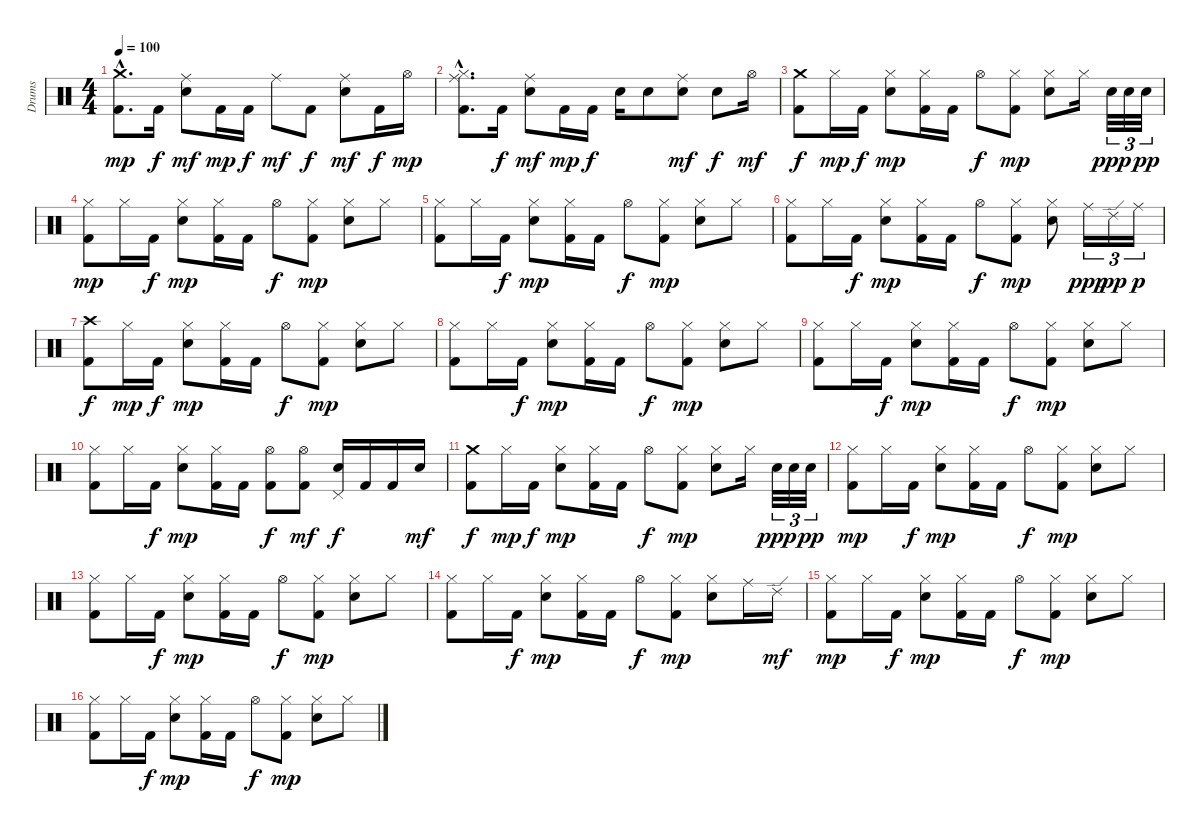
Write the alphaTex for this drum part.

\track ("Drums" "Drums") {instrument percussion}
\staff {score}
\articulation defaults
\ts (4 4)
\tempo 100
\clef neutral
\ks c
("Crash medium (hit)"{hac} "Kick (hit) 2"{hac}).8{d dy mp} "Kick (hit) 2".16{dy f} ("Ride (middle)" "Electric Snare (hit)").8{dy mf} "Kick (hit) 2".16{dy mp} "Kick (hit) 2".16{dy f} "Ride (middle)".8{dy mf} "Kick (hit) 2".8{dy f} ("Ride (middle)" "Electric Snare (hit)").8{dy mf} "Kick (hit) 2".16{dy f} "Hi-Hat (open)".16{dy mp} |
("Hi-Hat (closed)"{hac} "Ride (middle)"{hac} "Kick (hit) 2"{hac}).8{d} "Kick (hit) 2".16{dy f} ("Ride (middle)" "Electric Snare (hit)").8{dy mf} "Kick (hit) 2".16{dy mp} "Kick (hit) 2".16{dy f} "Electric Snare (hit)".16 "Electric Snare (hit)".8 ("Ride (middle)" "Electric Snare (hit)").8{dy mf} "Electric Snare (hit)".8{dy f} "Hi-Hat (open)".16{dy mf} |
("Crash medium (hit)" "Kick (hit) 2").8{dy f} "Hi-Hat (closed)".16{dy mp} "Kick (hit) 2".16{dy f} ("Hi-Hat (closed)" "Electric Snare (hit)").8{dy mp} ("Hi-Hat (closed)" "Kick (hit) 2").16 "Kick (hit) 2".16 "Hi-Hat (open)".8{dy f} ("Hi-Hat (closed)" "Kick (hit) 2").8{dy mp} ("Hi-Hat (closed)" "Electric Snare (hit)").8 "Hi-Hat (closed)".16 "Electric Snare (hit)".32{tu (3 2) dy ppp} "Electric Snare (hit)".32{tu (3 2)} "Electric Snare (hit)".32{tu (3 2) dy pp} |
("Hi-Hat (closed)" "Kick (hit) 2").8{dy mp} "Hi-Hat (closed)".16 "Kick (hit) 2".16{dy f} ("Hi-Hat (closed)" "Electric Snare (hit)").8{dy mp} ("Hi-Hat (closed)" "Kick (hit) 2").16 "Kick (hit) 2".16 "Hi-Hat (open)".8{dy f} ("Hi-Hat (closed)" "Kick (hit) 2").8{dy mp} ("Hi-Hat (closed)" "Electric Snare (hit)").8 "Hi-Hat (closed)".8 |
("Hi-Hat (closed)" "Kick (hit) 2").8 "Hi-Hat (closed)".16 "Kick (hit) 2".16{dy f} ("Hi-Hat (closed)" "Electric Snare (hit)").8{dy mp} ("Hi-Hat (closed)" "Kick (hit) 2").16 "Kick (hit) 2".16 "Hi-Hat (open)".8{dy f} ("Hi-Hat (closed)" "Kick (hit) 2").8{dy mp} ("Hi-Hat (closed)" "Electric Snare (hit)").8 "Hi-Hat (closed)".8 |
("Hi-Hat (closed)" "Kick (hit) 2").8 "Hi-Hat (closed)".16 "Kick (hit) 2".16{dy f} ("Hi-Hat (closed)" "Electric Snare (hit)").8{dy mp} ("Hi-Hat (closed)" "Kick (hit) 2").16 "Kick (hit) 2".16 "Hi-Hat (open)".8{dy f} ("Hi-Hat (closed)" "Kick (hit) 2").8{dy mp} ("Hi-Hat (closed)" "Electric Snare (hit)").8 "Ride (middle)".16{tu (3 2) dy ppp} "Ride (edge) 2".16{tu (3 2) dy pp} "Ride (middle)".16{tu (3 2) dy p} |
("Crash high (hit)" "Kick (hit) 2").8{dy f} "Hi-Hat (closed)".16{dy mp} "Kick (hit) 2".16{dy f} ("Hi-Hat (closed)" "Electric Snare (hit)").8{dy mp} ("Hi-Hat (closed)" "Kick (hit) 2").16 "Kick (hit) 2".16 "Hi-Hat (open)".8{dy f} ("Hi-Hat (closed)" "Kick (hit) 2").8{dy mp} ("Hi-Hat (closed)" "Electric Snare (hit)").8 "Hi-Hat (closed)".8 |
("Hi-Hat (closed)" "Kick (hit) 2").8 "Hi-Hat (closed)".16 "Kick (hit) 2".16{dy f} ("Hi-Hat (closed)" "Electric Snare (hit)").8{dy mp} ("Hi-Hat (closed)" "Kick (hit) 2").16 "Kick (hit) 2".16 "Hi-Hat (open)".8{dy f} ("Hi-Hat (closed)" "Kick (hit) 2").8{dy mp} ("Hi-Hat (closed)" "Electric Snare (hit)").8 "Hi-Hat (closed)".8 |
("Hi-Hat (closed)" "Kick (hit) 2").8 "Hi-Hat (closed)".16 "Kick (hit) 2".16{dy f} ("Hi-Hat (closed)" "Electric Snare (hit)").8{dy mp} ("Hi-Hat (closed)" "Kick (hit) 2").16 "Kick (hit) 2".16 "Hi-Hat (open)".8{dy f} ("Hi-Hat (closed)" "Kick (hit) 2").8{dy mp} ("Hi-Hat (closed)" "Electric Snare (hit)").8 "Hi-Hat (closed)".8 |
("Hi-Hat (closed)" "Kick (hit) 2").8 "Hi-Hat (closed)".16 "Kick (hit) 2".16{dy f} ("Hi-Hat (closed)" "Electric Snare (hit)").8{dy mp} ("Hi-Hat (closed)" "Kick (hit) 2").16 "Kick (hit) 2".16 ("Hi-Hat (open)" "Kick (hit) 2").8{dy f} ("Hi-Hat (open)" "Kick (hit) 2").8{dy mf} ("Pedal Hi-Hat (hit)" "Electric Snare (hit)").16{dy f} "Kick (hit) 2".16 "Kick (hit) 2".16 "Electric Snare (hit)".16{dy mf} |
("Crash medium (hit)" "Kick (hit) 2").8{dy f} "Hi-Hat (closed)".16{dy mp} "Kick (hit) 2".16{dy f} ("Hi-Hat (closed)" "Electric Snare (hit)").8{dy mp} ("Hi-Hat (closed)" "Kick (hit) 2").16 "Kick (hit) 2".16 "Hi-Hat (open)".8{dy f} ("Hi-Hat (closed)" "Kick (hit) 2").8{dy mp} ("Hi-Hat (closed)" "Electric Snare (hit)").8 "Hi-Hat (closed)".16 "Electric Snare (hit)".32{tu (3 2) dy ppp} "Electric Snare (hit)".32{tu (3 2)} "Electric Snare (hit)".32{tu (3 2) dy pp} |
("Hi-Hat (closed)" "Kick (hit) 2").8{dy mp} "Hi-Hat (closed)".16 "Kick (hit) 2".16{dy f} ("Hi-Hat (closed)" "Electric Snare (hit)").8{dy mp} ("Hi-Hat (closed)" "Kick (hit) 2").16 "Kick (hit) 2".16 "Hi-Hat (open)".8{dy f} ("Hi-Hat (closed)" "Kick (hit) 2").8{dy mp} ("Hi-Hat (closed)" "Electric Snare (hit)").8 "Hi-Hat (closed)".8 |
("Hi-Hat (closed)" "Kick (hit) 2").8 "Hi-Hat (closed)".16 "Kick (hit) 2".16{dy f} ("Hi-Hat (closed)" "Electric Snare (hit)").8{dy mp} ("Hi-Hat (closed)" "Kick (hit) 2").16 "Kick (hit) 2".16 "Hi-Hat (open)".8{dy f} ("Hi-Hat (closed)" "Kick (hit) 2").8{dy mp} ("Hi-Hat (closed)" "Electric Snare (hit)").8 "Hi-Hat (closed)".8 |
("Hi-Hat (closed)" "Kick (hit) 2").8 "Hi-Hat (closed)".16 "Kick (hit) 2".16{dy f} ("Hi-Hat (closed)" "Electric Snare (hit)").8{dy mp} ("Hi-Hat (closed)" "Kick (hit) 2").16 "Kick (hit) 2".16 "Hi-Hat (open)".8{dy f} ("Hi-Hat (closed)" "Kick (hit) 2").8{dy mp} ("Hi-Hat (closed)" "Electric Snare (hit)").8 "Ride (middle)".16 "Ride (edge) 2".16{dy mf} |
("Hi-Hat (closed)" "Kick (hit) 2").8{dy mp} "Hi-Hat (closed)".16 "Kick (hit) 2".16{dy f} ("Hi-Hat (closed)" "Electric Snare (hit)").8{dy mp} ("Hi-Hat (closed)" "Kick (hit) 2").16 "Kick (hit) 2".16 "Hi-Hat (open)".8{dy f} ("Hi-Hat (closed)" "Kick (hit) 2").8{dy mp} ("Hi-Hat (closed)" "Electric Snare (hit)").8 "Hi-Hat (closed)".8 |
("Hi-Hat (closed)" "Kick (hit) 2").8 "Hi-Hat (closed)".16 "Kick (hit) 2".16{dy f} ("Hi-Hat (closed)" "Electric Snare (hit)").8{dy mp} ("Hi-Hat (closed)" "Kick (hit) 2").16 "Kick (hit) 2".16 "Hi-Hat (open)".8{dy f} ("Hi-Hat (closed)" "Kick (hit) 2").8{dy mp} ("Hi-Hat (closed)" "Electric Snare (hit)").8 "Hi-Hat (closed)".8
